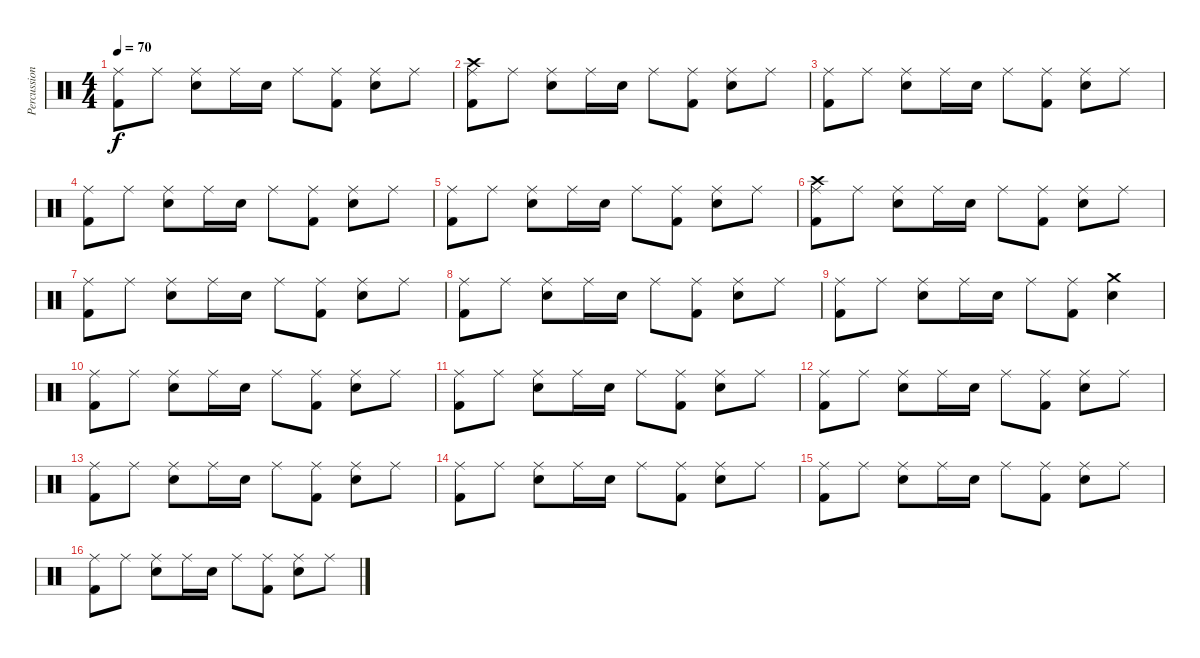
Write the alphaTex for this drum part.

\track ("Percussion" "Percussion") {instrument percussion}
\staff {score}
\articulation defaults
\ts (4 4)
\tempo 70
\clef neutral
\ks c
("Ride (middle)" "Kick (hit) 2").8{dy f} "Ride (middle)".8 ("Ride (middle)" "Electric Snare (hit)").8 "Ride (middle)".16 "Electric Snare (hit)".16 "Ride (middle)".8 ("Ride (middle)" "Kick (hit) 2").8 ("Ride (middle)" "Electric Snare (hit)").8 "Ride (middle)".8 |
("Crash high (hit)" "Ride (middle)" "Kick (hit) 2").8 "Ride (middle)".8 ("Ride (middle)" "Electric Snare (hit)").8 "Ride (middle)".16 "Electric Snare (hit)".16 "Ride (middle)".8 ("Ride (middle)" "Kick (hit) 2").8 ("Ride (middle)" "Electric Snare (hit)").8 "Ride (middle)".8 |
("Ride (middle)" "Kick (hit) 2").8 "Ride (middle)".8 ("Ride (middle)" "Electric Snare (hit)").8 "Ride (middle)".16 "Electric Snare (hit)".16 "Ride (middle)".8 ("Ride (middle)" "Kick (hit) 2").8 ("Ride (middle)" "Electric Snare (hit)").8 "Ride (middle)".8 |
("Ride (middle)" "Kick (hit) 2").8 "Ride (middle)".8 ("Ride (middle)" "Electric Snare (hit)").8 "Ride (middle)".16 "Electric Snare (hit)".16 "Ride (middle)".8 ("Ride (middle)" "Kick (hit) 2").8 ("Ride (middle)" "Electric Snare (hit)").8 "Ride (middle)".8 |
("Ride (middle)" "Kick (hit) 2").8 "Ride (middle)".8 ("Ride (middle)" "Electric Snare (hit)").8 "Ride (middle)".16 "Electric Snare (hit)".16 "Ride (middle)".8 ("Ride (middle)" "Kick (hit) 2").8 ("Ride (middle)" "Electric Snare (hit)").8 "Ride (middle)".8 |
("Crash high (hit)" "Ride (middle)" "Kick (hit) 2").8 "Ride (middle)".8 ("Ride (middle)" "Electric Snare (hit)").8 "Ride (middle)".16 "Electric Snare (hit)".16 "Ride (middle)".8 ("Ride (middle)" "Kick (hit) 2").8 ("Ride (middle)" "Electric Snare (hit)").8 "Ride (middle)".8 |
("Ride (middle)" "Kick (hit) 2").8 "Ride (middle)".8 ("Ride (middle)" "Electric Snare (hit)").8 "Ride (middle)".16 "Electric Snare (hit)".16 "Ride (middle)".8 ("Ride (middle)" "Kick (hit) 2").8 ("Ride (middle)" "Electric Snare (hit)").8 "Ride (middle)".8 |
("Ride (middle)" "Kick (hit) 2").8 "Ride (middle)".8 ("Ride (middle)" "Electric Snare (hit)").8 "Ride (middle)".16 "Electric Snare (hit)".16 "Ride (middle)".8 ("Ride (middle)" "Kick (hit) 2").8 ("Ride (middle)" "Electric Snare (hit)").8 "Ride (middle)".8 |
("Ride (middle)" "Kick (hit) 2").8 "Ride (middle)".8 ("Ride (middle)" "Electric Snare (hit)").8 "Ride (middle)".16 "Electric Snare (hit)".16 "Ride (middle)".8 ("Ride (middle)" "Kick (hit) 2").8 ("Crash medium (hit)" "Electric Snare (hit)").4 |
("Ride (middle)" "Kick (hit) 2").8 "Ride (middle)".8 ("Ride (middle)" "Electric Snare (hit)").8 "Ride (middle)".16 "Electric Snare (hit)".16 "Ride (middle)".8 ("Ride (middle)" "Kick (hit) 2").8 ("Ride (middle)" "Electric Snare (hit)").8 "Ride (middle)".8 |
("Ride (middle)" "Kick (hit) 2").8 "Ride (middle)".8 ("Ride (middle)" "Electric Snare (hit)").8 "Ride (middle)".16 "Electric Snare (hit)".16 "Ride (middle)".8 ("Ride (middle)" "Kick (hit) 2").8 ("Ride (middle)" "Electric Snare (hit)").8 "Ride (middle)".8 |
("Ride (middle)" "Kick (hit) 2").8 "Ride (middle)".8 ("Ride (middle)" "Electric Snare (hit)").8 "Ride (middle)".16 "Electric Snare (hit)".16 "Ride (middle)".8 ("Ride (middle)" "Kick (hit) 2").8 ("Ride (middle)" "Electric Snare (hit)").8 "Ride (middle)".8 |
("Ride (middle)" "Kick (hit) 2").8 "Ride (middle)".8 ("Ride (middle)" "Electric Snare (hit)").8 "Ride (middle)".16 "Electric Snare (hit)".16 "Ride (middle)".8 ("Ride (middle)" "Kick (hit) 2").8 ("Ride (middle)" "Electric Snare (hit)").8 "Ride (middle)".8 |
("Ride (middle)" "Kick (hit) 2").8 "Ride (middle)".8 ("Ride (middle)" "Electric Snare (hit)").8 "Ride (middle)".16 "Electric Snare (hit)".16 "Ride (middle)".8 ("Ride (middle)" "Kick (hit) 2").8 ("Ride (middle)" "Electric Snare (hit)").8 "Ride (middle)".8 |
("Ride (middle)" "Kick (hit) 2").8 "Ride (middle)".8 ("Ride (middle)" "Electric Snare (hit)").8 "Ride (middle)".16 "Electric Snare (hit)".16 "Ride (middle)".8 ("Ride (middle)" "Kick (hit) 2").8 ("Ride (middle)" "Electric Snare (hit)").8 "Ride (middle)".8 |
("Ride (middle)" "Kick (hit) 2").8 "Ride (middle)".8 ("Ride (middle)" "Electric Snare (hit)").8 "Ride (middle)".16 "Electric Snare (hit)".16 "Ride (middle)".8 ("Ride (middle)" "Kick (hit) 2").8 ("Ride (middle)" "Electric Snare (hit)").8 "Ride (middle)".8
